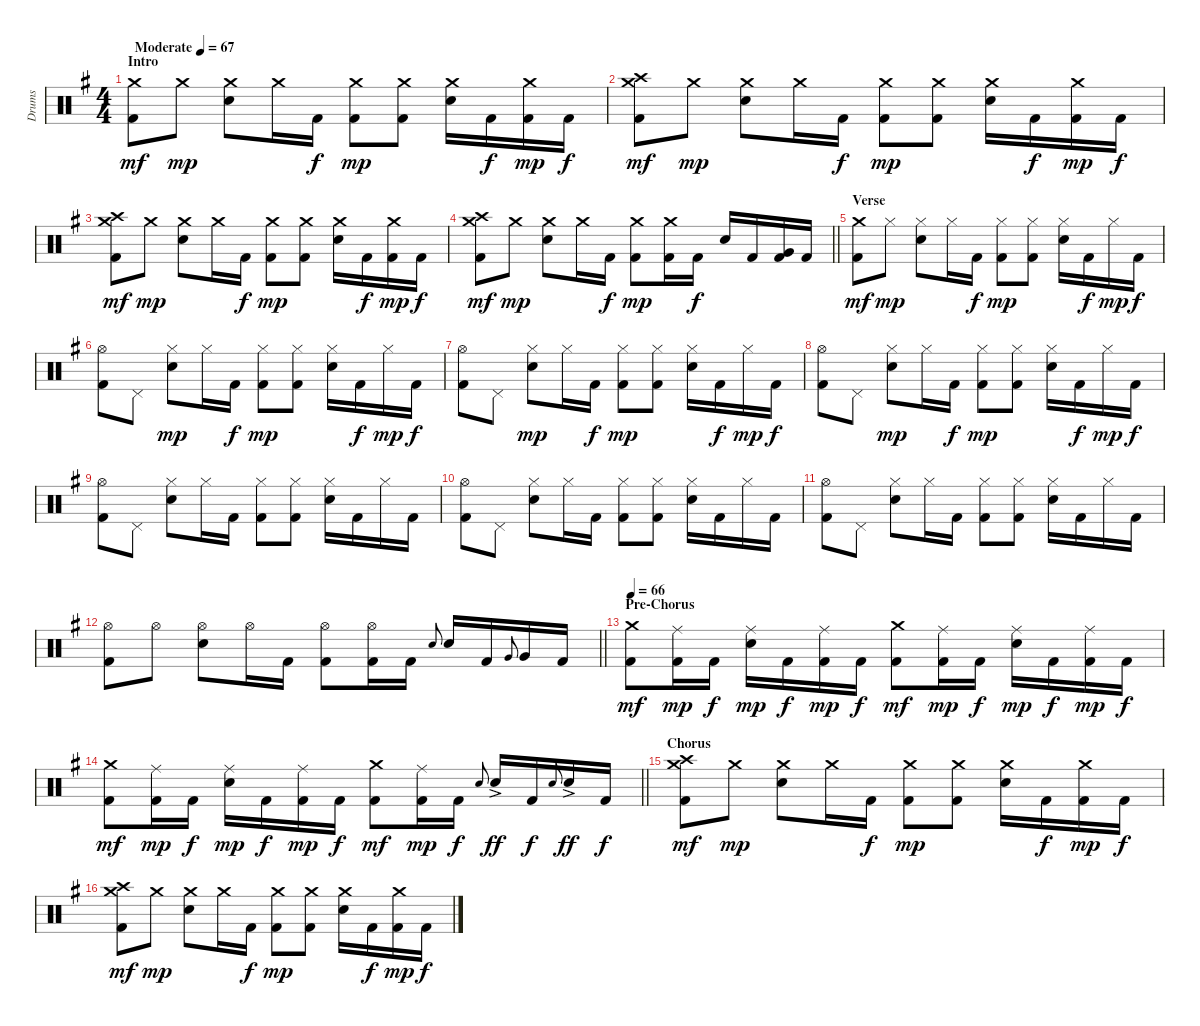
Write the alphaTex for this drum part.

\track ("Drums" "Drums") {instrument percussion}
\staff {score}
\articulation defaults
\ts (4 4)
\section ("" "Intro")
\tempo (67 "Moderate")
\clef neutral
\ks g
("Crash medium (hit)" "Kick (hit) 2").8{dy mf} "Crash medium (hit)".8{dy mp} ("Crash medium (hit)" "Electric Snare (hit)").8 "Crash medium (hit)".16 "Kick (hit) 2".16{dy f} ("Crash medium (hit)" "Kick (hit) 2").8{dy mp} ("Crash medium (hit)" "Kick (hit) 2").8 ("Crash medium (hit)" "Electric Snare (hit)").16 "Kick (hit) 2".16{dy f} ("Crash medium (hit)" "Kick (hit) 2").16{dy mp} "Kick (hit) 2".16{dy f} |
("Crash high (hit)" "Crash medium (hit)" "Kick (hit) 2").8{dy mf} "Crash medium (hit)".8{dy mp} ("Crash medium (hit)" "Electric Snare (hit)").8 "Crash medium (hit)".16 "Kick (hit) 2".16{dy f} ("Crash medium (hit)" "Kick (hit) 2").8{dy mp} ("Crash medium (hit)" "Kick (hit) 2").8 ("Crash medium (hit)" "Electric Snare (hit)").16 "Kick (hit) 2".16{dy f} ("Crash medium (hit)" "Kick (hit) 2").16{dy mp} "Kick (hit) 2".16{dy f} |
("Crash high (hit)" "Crash medium (hit)" "Kick (hit) 2").8{dy mf} "Crash medium (hit)".8{dy mp} ("Crash medium (hit)" "Electric Snare (hit)").8 "Crash medium (hit)".16 "Kick (hit) 2".16{dy f} ("Crash medium (hit)" "Kick (hit) 2").8{dy mp} ("Crash medium (hit)" "Kick (hit) 2").8 ("Crash medium (hit)" "Electric Snare (hit)").16 "Kick (hit) 2".16{dy f} ("Crash medium (hit)" "Kick (hit) 2").16{dy mp} "Kick (hit) 2".16{dy f} |
\barLineRight lightlight
("Crash high (hit)" "Crash medium (hit)" "Kick (hit) 2").8{dy mf} "Crash medium (hit)".8{dy mp} ("Crash medium (hit)" "Electric Snare (hit)").8 "Crash medium (hit)".16 "Kick (hit) 2".16{dy f} ("Crash medium (hit)" "Kick (hit) 2").8{dy mp} ("Crash medium (hit)" "Kick (hit) 2").16 "Kick (hit) 2".16{dy f} "Electric Snare (hit)".16 "Kick (hit) 2".16 ("Very Low Tom (hit)" "Kick (hit) 2").16{bd 60} "Kick (hit) 2".16 |
\section ("" "Verse")
("Crash medium (hit)" "Kick (hit) 2").8{dy mf} "Hi-Hat (closed)".8{dy mp} ("Hi-Hat (closed)" "Electric Snare (hit)").8 "Hi-Hat (closed)".16 "Kick (hit) 2".16{dy f} ("Hi-Hat (closed)" "Kick (hit) 2").8{dy mp} ("Hi-Hat (closed)" "Kick (hit) 2").8 ("Hi-Hat (closed)" "Electric Snare (hit)").16 "Kick (hit) 2".16{dy f} "Hi-Hat (closed)".16{dy mp} "Kick (hit) 2".16{dy f} |
("Hi-Hat (open)" "Kick (hit) 2").8 "Pedal Hi-Hat (hit)".8 ("Hi-Hat (closed)" "Electric Snare (hit)").8{dy mp} "Hi-Hat (closed)".16 "Kick (hit) 2".16{dy f} ("Hi-Hat (closed)" "Kick (hit) 2").8{dy mp} ("Hi-Hat (closed)" "Kick (hit) 2").8 ("Hi-Hat (closed)" "Electric Snare (hit)").16 "Kick (hit) 2".16{dy f} "Hi-Hat (closed)".16{dy mp} "Kick (hit) 2".16{dy f} |
("Hi-Hat (open)" "Kick (hit) 2").8 "Pedal Hi-Hat (hit)".8 ("Hi-Hat (closed)" "Electric Snare (hit)").8{dy mp} "Hi-Hat (closed)".16 "Kick (hit) 2".16{dy f} ("Hi-Hat (closed)" "Kick (hit) 2").8{dy mp} ("Hi-Hat (closed)" "Kick (hit) 2").8 ("Hi-Hat (closed)" "Electric Snare (hit)").16 "Kick (hit) 2".16{dy f} "Hi-Hat (closed)".16{dy mp} "Kick (hit) 2".16{dy f} |
("Hi-Hat (open)" "Kick (hit) 2").8 "Pedal Hi-Hat (hit)".8 ("Hi-Hat (closed)" "Electric Snare (hit)").8{dy mp} "Hi-Hat (closed)".16 "Kick (hit) 2".16{dy f} ("Hi-Hat (closed)" "Kick (hit) 2").8{dy mp} ("Hi-Hat (closed)" "Kick (hit) 2").8 ("Hi-Hat (closed)" "Electric Snare (hit)").16 "Kick (hit) 2".16{dy f} "Hi-Hat (closed)".16{dy mp} "Kick (hit) 2".16{dy f} |
("Hi-Hat (open)" "Kick (hit) 2").8 "Pedal Hi-Hat (hit)".8 ("Hi-Hat (closed)" "Electric Snare (hit)").8 "Hi-Hat (closed)".16 "Kick (hit) 2".16 ("Hi-Hat (closed)" "Kick (hit) 2").8 ("Hi-Hat (closed)" "Kick (hit) 2").8 ("Hi-Hat (closed)" "Electric Snare (hit)").16 "Kick (hit) 2".16 "Hi-Hat (closed)".16 "Kick (hit) 2".16 |
("Hi-Hat (open)" "Kick (hit) 2").8 "Pedal Hi-Hat (hit)".8 ("Hi-Hat (closed)" "Electric Snare (hit)").8 "Hi-Hat (closed)".16 "Kick (hit) 2".16 ("Hi-Hat (closed)" "Kick (hit) 2").8 ("Hi-Hat (closed)" "Kick (hit) 2").8 ("Hi-Hat (closed)" "Electric Snare (hit)").16 "Kick (hit) 2".16 "Hi-Hat (closed)".16 "Kick (hit) 2".16 |
("Hi-Hat (open)" "Kick (hit) 2").8 "Pedal Hi-Hat (hit)".8 ("Hi-Hat (closed)" "Electric Snare (hit)").8 "Hi-Hat (closed)".16 "Kick (hit) 2".16 ("Hi-Hat (closed)" "Kick (hit) 2").8 ("Hi-Hat (closed)" "Kick (hit) 2").8 ("Hi-Hat (closed)" "Electric Snare (hit)").16 "Kick (hit) 2".16 "Hi-Hat (closed)".16 "Kick (hit) 2".16 |
\barLineRight lightlight
("Hi-Hat (open)" "Kick (hit) 2").8 "Hi-Hat (open)".8 ("Hi-Hat (open)" "Electric Snare (hit)").8 "Hi-Hat (open)".16 "Kick (hit) 2".16 ("Hi-Hat (open)" "Kick (hit) 2").8 ("Hi-Hat (open)" "Kick (hit) 2").16 "Kick (hit) 2".16 "Electric Snare (hit)".8{gr onbeat} "Electric Snare (hit)".16 "Kick (hit) 2".16 "Very Low Tom (hit)".8{gr onbeat} "Very Low Tom (hit)".16 "Kick (hit) 2".16 |
\section ("" "Pre-Chorus")
\tempo 66
("Crash medium (hit)" "Kick (hit) 2").8{dy mf} ("Ride (middle)" "Kick (hit) 2").16{dy mp} "Kick (hit) 2".16{dy f} ("Ride (middle)" "Electric Snare (hit)").16{dy mp} "Kick (hit) 2".16{dy f} ("Ride (middle)" "Kick (hit) 2").16{dy mp} "Kick (hit) 2".16{dy f} ("Crash medium (hit)" "Kick (hit) 2").8{dy mf} ("Ride (middle)" "Kick (hit) 2").16{dy mp} "Kick (hit) 2".16{dy f} ("Ride (middle)" "Electric Snare (hit)").16{dy mp} "Kick (hit) 2".16{dy f} ("Ride (middle)" "Kick (hit) 2").16{dy mp} "Kick (hit) 2".16{dy f} |
\barLineRight lightlight
("Crash medium (hit)" "Kick (hit) 2").8{dy mf} ("Ride (middle)" "Kick (hit) 2").16{dy mp} "Kick (hit) 2".16{dy f} ("Ride (middle)" "Electric Snare (hit)").16{dy mp} "Kick (hit) 2".16{dy f} ("Ride (middle)" "Kick (hit) 2").16{dy mp} "Kick (hit) 2".16{dy f} ("Crash medium (hit)" "Kick (hit) 2").8{dy mf} ("Ride (middle)" "Kick (hit) 2").16{dy mp} "Kick (hit) 2".16{dy f} "Electric Snare (hit)".8{gr onbeat} "Electric Snare (hit)"{ac}.16{dy ff} "Kick (hit) 2".16{dy f} "Electric Snare (hit)".8{gr onbeat} "Electric Snare (hit)"{ac}.16{dy ff} "Kick (hit) 2".16{dy f} |
\section ("" "Chorus")
("Crash high (hit)" "Crash medium (hit)" "Kick (hit) 2").8{dy mf} "Crash medium (hit)".8{dy mp} ("Crash medium (hit)" "Electric Snare (hit)").8 "Crash medium (hit)".16 "Kick (hit) 2".16{dy f} ("Crash medium (hit)" "Kick (hit) 2").8{dy mp} ("Crash medium (hit)" "Kick (hit) 2").8 ("Crash medium (hit)" "Electric Snare (hit)").16 "Kick (hit) 2".16{dy f} ("Crash medium (hit)" "Kick (hit) 2").16{dy mp} "Kick (hit) 2".16{dy f} |
("Crash high (hit)" "Crash medium (hit)" "Kick (hit) 2").8{dy mf} "Crash medium (hit)".8{dy mp} ("Crash medium (hit)" "Electric Snare (hit)").8 "Crash medium (hit)".16 "Kick (hit) 2".16{dy f} ("Crash medium (hit)" "Kick (hit) 2").8{dy mp} ("Crash medium (hit)" "Kick (hit) 2").8 ("Crash medium (hit)" "Electric Snare (hit)").16 "Kick (hit) 2".16{dy f} ("Crash medium (hit)" "Kick (hit) 2").16{dy mp} "Kick (hit) 2".16{dy f}
